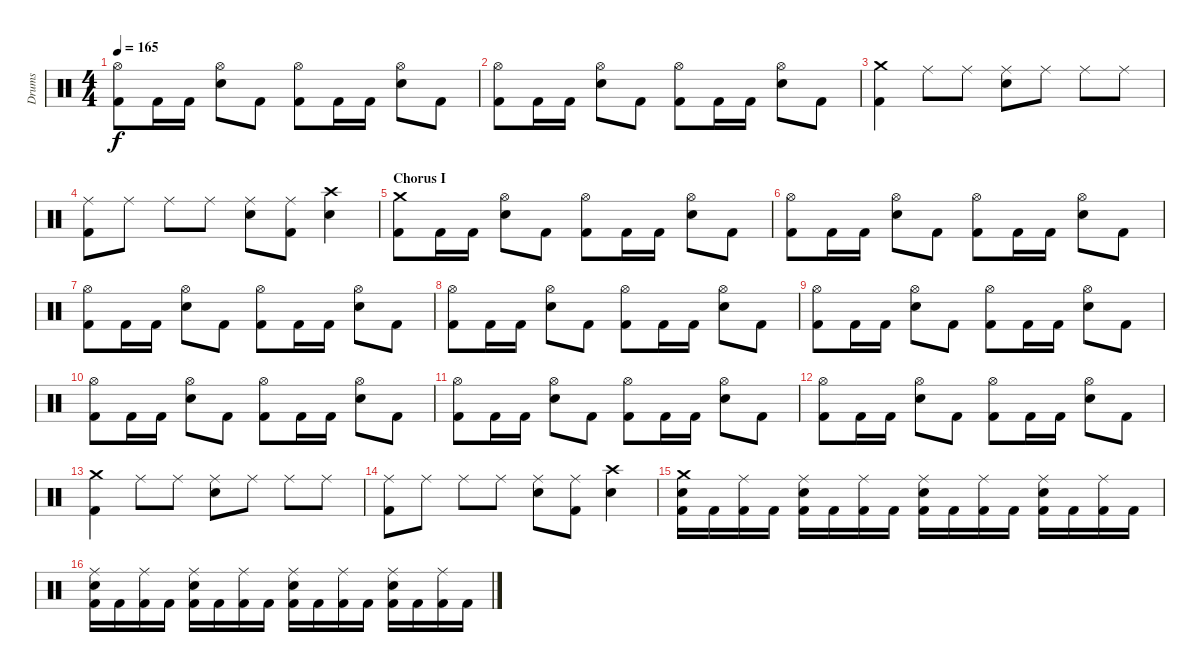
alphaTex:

\track ("Drums" "Drums") {instrument percussion}
\staff {score}
\articulation defaults
\ts (4 4)
\tempo 165
\clef neutral
\ks c
("Kick (hit) 2" "Hi-Hat (open)").8{dy f} "Kick (hit) 2".16 "Kick (hit) 2".16 ("Electric Snare (hit)" "Hi-Hat (open)").8 "Kick (hit) 2".8 ("Kick (hit) 2" "Hi-Hat (open)").8 "Kick (hit) 2".16 "Kick (hit) 2".16 ("Electric Snare (hit)" "Hi-Hat (open)").8 "Kick (hit) 2".8 |
("Kick (hit) 2" "Hi-Hat (open)").8 "Kick (hit) 2".16 "Kick (hit) 2".16 ("Electric Snare (hit)" "Hi-Hat (open)").8 "Kick (hit) 2".8 ("Kick (hit) 2" "Hi-Hat (open)").8 "Kick (hit) 2".16 "Kick (hit) 2".16 ("Electric Snare (hit)" "Hi-Hat (open)").8 "Kick (hit) 2".8 |
("Kick (hit) 2" "Crash medium (hit)").4 "Ride (middle)".8 "Ride (middle)".8 ("Electric Snare (hit)" "Ride (middle)").8 "Ride (middle)".8 "Ride (middle)".8 "Ride (middle)".8 |
("Kick (hit) 2" "Ride (middle)").8 "Ride (middle)".8 "Ride (middle)".8 "Ride (middle)".8 ("Electric Snare (hit)" "Ride (middle)").8 ("Kick (hit) 2" "Ride (middle)").8 ("Electric Snare (hit)" "Crash high (hit)").4 |
\section ("" "Chorus I")
("Kick (hit) 2" "Crash medium (hit)").8 "Kick (hit) 2".16 "Kick (hit) 2".16 ("Electric Snare (hit)" "Hi-Hat (open)").8 "Kick (hit) 2".8 ("Kick (hit) 2" "Hi-Hat (open)").8 "Kick (hit) 2".16 "Kick (hit) 2".16 ("Electric Snare (hit)" "Hi-Hat (open)").8 "Kick (hit) 2".8 |
("Kick (hit) 2" "Hi-Hat (open)").8 "Kick (hit) 2".16 "Kick (hit) 2".16 ("Electric Snare (hit)" "Hi-Hat (open)").8 "Kick (hit) 2".8 ("Kick (hit) 2" "Hi-Hat (open)").8 "Kick (hit) 2".16 "Kick (hit) 2".16 ("Electric Snare (hit)" "Hi-Hat (open)").8 "Kick (hit) 2".8 |
("Kick (hit) 2" "Hi-Hat (open)").8 "Kick (hit) 2".16 "Kick (hit) 2".16 ("Electric Snare (hit)" "Hi-Hat (open)").8 "Kick (hit) 2".8 ("Kick (hit) 2" "Hi-Hat (open)").8 "Kick (hit) 2".16 "Kick (hit) 2".16 ("Electric Snare (hit)" "Hi-Hat (open)").8 "Kick (hit) 2".8 |
("Kick (hit) 2" "Hi-Hat (open)").8 "Kick (hit) 2".16 "Kick (hit) 2".16 ("Electric Snare (hit)" "Hi-Hat (open)").8 "Kick (hit) 2".8 ("Kick (hit) 2" "Hi-Hat (open)").8 "Kick (hit) 2".16 "Kick (hit) 2".16 ("Electric Snare (hit)" "Hi-Hat (open)").8 "Kick (hit) 2".8 |
("Kick (hit) 2" "Hi-Hat (open)").8 "Kick (hit) 2".16 "Kick (hit) 2".16 ("Electric Snare (hit)" "Hi-Hat (open)").8 "Kick (hit) 2".8 ("Kick (hit) 2" "Hi-Hat (open)").8 "Kick (hit) 2".16 "Kick (hit) 2".16 ("Electric Snare (hit)" "Hi-Hat (open)").8 "Kick (hit) 2".8 |
("Kick (hit) 2" "Hi-Hat (open)").8 "Kick (hit) 2".16 "Kick (hit) 2".16 ("Electric Snare (hit)" "Hi-Hat (open)").8 "Kick (hit) 2".8 ("Kick (hit) 2" "Hi-Hat (open)").8 "Kick (hit) 2".16 "Kick (hit) 2".16 ("Electric Snare (hit)" "Hi-Hat (open)").8 "Kick (hit) 2".8 |
("Kick (hit) 2" "Hi-Hat (open)").8 "Kick (hit) 2".16 "Kick (hit) 2".16 ("Electric Snare (hit)" "Hi-Hat (open)").8 "Kick (hit) 2".8 ("Kick (hit) 2" "Hi-Hat (open)").8 "Kick (hit) 2".16 "Kick (hit) 2".16 ("Electric Snare (hit)" "Hi-Hat (open)").8 "Kick (hit) 2".8 |
("Kick (hit) 2" "Hi-Hat (open)").8 "Kick (hit) 2".16 "Kick (hit) 2".16 ("Electric Snare (hit)" "Hi-Hat (open)").8 "Kick (hit) 2".8 ("Kick (hit) 2" "Hi-Hat (open)").8 "Kick (hit) 2".16 "Kick (hit) 2".16 ("Electric Snare (hit)" "Hi-Hat (open)").8 "Kick (hit) 2".8 |
("Kick (hit) 2" "Crash medium (hit)").4 "Ride (middle)".8 "Ride (middle)".8 ("Electric Snare (hit)" "Ride (middle)").8 "Ride (middle)".8 "Ride (middle)".8 "Ride (middle)".8 |
("Kick (hit) 2" "Ride (middle)").8 "Ride (middle)".8 "Ride (middle)".8 "Ride (middle)".8 ("Electric Snare (hit)" "Ride (middle)").8 ("Kick (hit) 2" "Ride (middle)").8 ("Electric Snare (hit)" "Crash high (hit)").4 |
("Kick (hit) 2" "Electric Snare (hit)" "Crash medium (hit)").16 "Kick (hit) 2".16 ("Kick (hit) 2" "Ride (middle)").16 "Kick (hit) 2".16 ("Kick (hit) 2" "Electric Snare (hit)" "Ride (middle)").16 "Kick (hit) 2".16 ("Kick (hit) 2" "Ride (middle)").16 "Kick (hit) 2".16 ("Kick (hit) 2" "Electric Snare (hit)" "Ride (middle)").16 "Kick (hit) 2".16 ("Kick (hit) 2" "Ride (middle)").16 "Kick (hit) 2".16 ("Kick (hit) 2" "Electric Snare (hit)" "Ride (middle)").16 "Kick (hit) 2".16 ("Kick (hit) 2" "Ride (middle)").16 "Kick (hit) 2".16 |
("Kick (hit) 2" "Electric Snare (hit)" "Ride (middle)").16 "Kick (hit) 2".16 ("Kick (hit) 2" "Ride (middle)").16 "Kick (hit) 2".16 ("Kick (hit) 2" "Electric Snare (hit)" "Ride (middle)").16 "Kick (hit) 2".16 ("Kick (hit) 2" "Ride (middle)").16 "Kick (hit) 2".16 ("Kick (hit) 2" "Electric Snare (hit)" "Ride (middle)").16 "Kick (hit) 2".16 ("Kick (hit) 2" "Ride (middle)").16 "Kick (hit) 2".16 ("Kick (hit) 2" "Electric Snare (hit)" "Ride (middle)").16 "Kick (hit) 2".16 ("Kick (hit) 2" "Ride (middle)").16 "Kick (hit) 2".16
